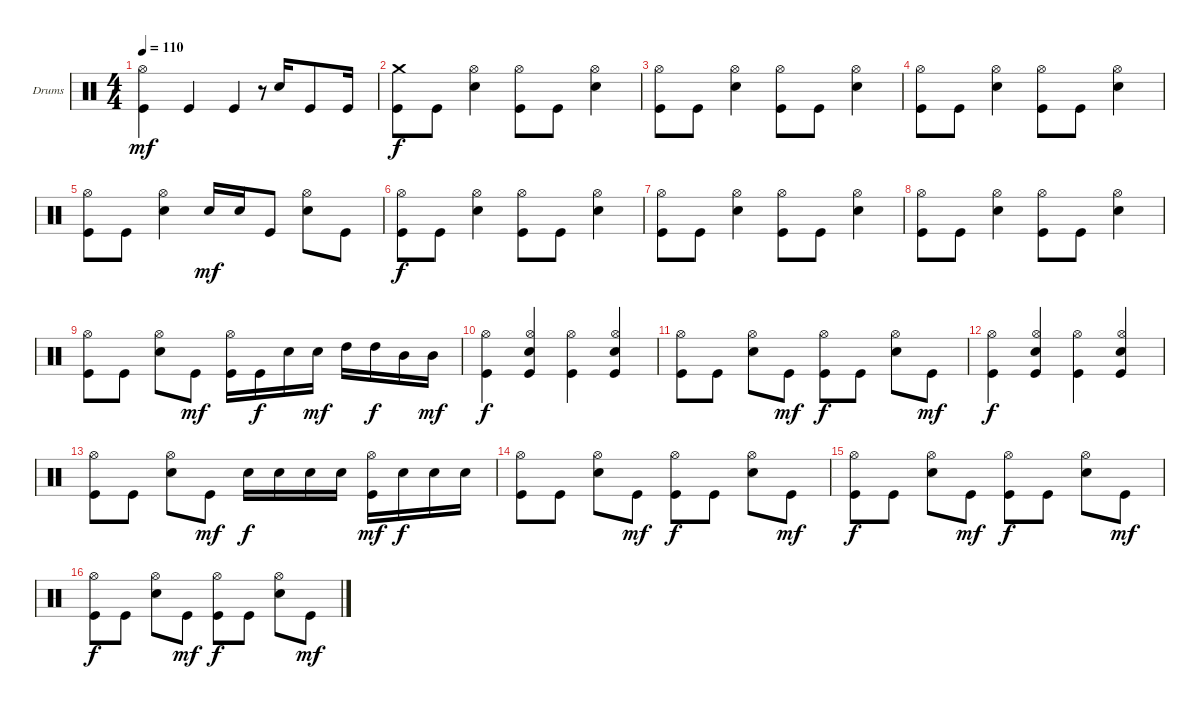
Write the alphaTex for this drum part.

\bracketExtendMode groupsimilarinstruments
\firstSystemTrackNameOrientation horizontal
\otherSystemsTrackNameOrientation horizontal
\track ("Drumkit" "Drums") {instrument percussion}
\staff {score}
\articulation defaults
\ts (4 4)
\tempo 110
\clef neutral
\ks c
("Kick (hit)" "Hi-Hat (open)").4{dy mf} "Kick (hit)".4 "Kick (hit)".4 r.8{gr} "Snare (hit) 2".16 "Kick (hit)".8 "Kick (hit)".16 |
("Crash medium (hit)" "Kick (hit)").8{dy f} "Kick (hit)".8 ("Hi-Hat (open)" "Snare (hit) 2").4 ("Hi-Hat (open)" "Kick (hit)").8 "Kick (hit)".8 ("Hi-Hat (open)" "Snare (hit) 2").4 |
("Hi-Hat (open)" "Kick (hit)").8 "Kick (hit)".8 ("Hi-Hat (open)" "Snare (hit) 2").4 ("Hi-Hat (open)" "Kick (hit)").8 "Kick (hit)".8 ("Hi-Hat (open)" "Snare (hit) 2").4 |
("Hi-Hat (open)" "Kick (hit)").8 "Kick (hit)".8 ("Hi-Hat (open)" "Snare (hit) 2").4 ("Hi-Hat (open)" "Kick (hit)").8 "Kick (hit)".8 ("Hi-Hat (open)" "Snare (hit) 2").4 |
("Hi-Hat (open)" "Kick (hit)").8 "Kick (hit)".8 ("Hi-Hat (open)" "Snare (hit) 2").4 "Snare (hit) 2".16{dy mf} "Snare (hit) 2".16 "Kick (hit)".8 ("Hi-Hat (open)" "Snare (hit) 2").8 "Kick (hit)".8 |
("Hi-Hat (open)" "Kick (hit)").8{dy f} "Kick (hit)".8 ("Hi-Hat (open)" "Snare (hit) 2").4 ("Hi-Hat (open)" "Kick (hit)").8 "Kick (hit)".8 ("Hi-Hat (open)" "Snare (hit) 2").4 |
("Hi-Hat (open)" "Kick (hit)").8 "Kick (hit)".8 ("Hi-Hat (open)" "Snare (hit) 2").4 ("Hi-Hat (open)" "Kick (hit)").8 "Kick (hit)".8 ("Hi-Hat (open)" "Snare (hit) 2").4 |
("Hi-Hat (open)" "Kick (hit)").8 "Kick (hit)".8 ("Hi-Hat (open)" "Snare (hit) 2").4 ("Hi-Hat (open)" "Kick (hit)").8 "Kick (hit)".8 ("Hi-Hat (open)" "Snare (hit) 2").4 |
("Hi-Hat (open)" "Kick (hit)").8 "Kick (hit)".8 ("Hi-Hat (open)" "Snare (hit) 2").8 "Kick (hit)".8{dy mf} ("Hi-Hat (open)" "Kick (hit)").16 "Kick (hit)".16{dy f} "Snare (hit) 2".16 "Snare (hit) 2".16{dy mf} "High Tom (hit)".16 "High Tom (hit)".16{dy f} "Mid Tom (hit)".16 "Mid Tom (hit)".16{dy mf} |
("Hi-Hat (open)" "Kick (hit)").4{dy f} ("Hi-Hat (open)" "Snare (hit) 2" "Kick (hit)").4 ("Hi-Hat (open)" "Kick (hit)").4 ("Hi-Hat (open)" "Snare (hit) 2" "Kick (hit)").4 |
("Hi-Hat (open)" "Kick (hit)").8 "Kick (hit)".8 ("Hi-Hat (open)" "Snare (hit) 2").8 "Kick (hit)".8{dy mf} ("Hi-Hat (open)" "Kick (hit)").8{dy f} "Kick (hit)".8 ("Hi-Hat (open)" "Snare (hit) 2").8 "Kick (hit)".8{dy mf} |
("Hi-Hat (open)" "Kick (hit)").4{dy f} ("Hi-Hat (open)" "Snare (hit) 2" "Kick (hit)").4 ("Hi-Hat (open)" "Kick (hit)").4 ("Hi-Hat (open)" "Snare (hit) 2" "Kick (hit)").4 |
("Hi-Hat (open)" "Kick (hit)").8 "Kick (hit)".8 ("Hi-Hat (open)" "Snare (hit) 2").8 "Kick (hit)".8{dy mf} "Snare (hit) 2".16{dy f} "Snare (hit) 2".16 "Snare (hit) 2".16 "Snare (hit) 2".16 ("Hi-Hat (open)" "Kick (hit)").16{dy mf} "Snare (hit) 2".16{dy f} "Snare (hit) 2".16 "Snare (hit) 2".16 |
("Hi-Hat (open)" "Kick (hit)").8 "Kick (hit)".8 ("Hi-Hat (open)" "Snare (hit) 2").8 "Kick (hit)".8{dy mf} ("Hi-Hat (open)" "Kick (hit)").8{dy f} "Kick (hit)".8 ("Hi-Hat (open)" "Snare (hit) 2").8 "Kick (hit)".8{dy mf} |
("Hi-Hat (open)" "Kick (hit)").8{dy f} "Kick (hit)".8 ("Hi-Hat (open)" "Snare (hit) 2").8 "Kick (hit)".8{dy mf} ("Hi-Hat (open)" "Kick (hit)").8{dy f} "Kick (hit)".8 ("Hi-Hat (open)" "Snare (hit) 2").8 "Kick (hit)".8{dy mf} |
("Hi-Hat (open)" "Kick (hit)").8{dy f} "Kick (hit)".8 ("Hi-Hat (open)" "Snare (hit) 2").8 "Kick (hit)".8{dy mf} ("Hi-Hat (open)" "Kick (hit)").8{dy f} "Kick (hit)".8 ("Hi-Hat (open)" "Snare (hit) 2").8 "Kick (hit)".8{dy mf}
